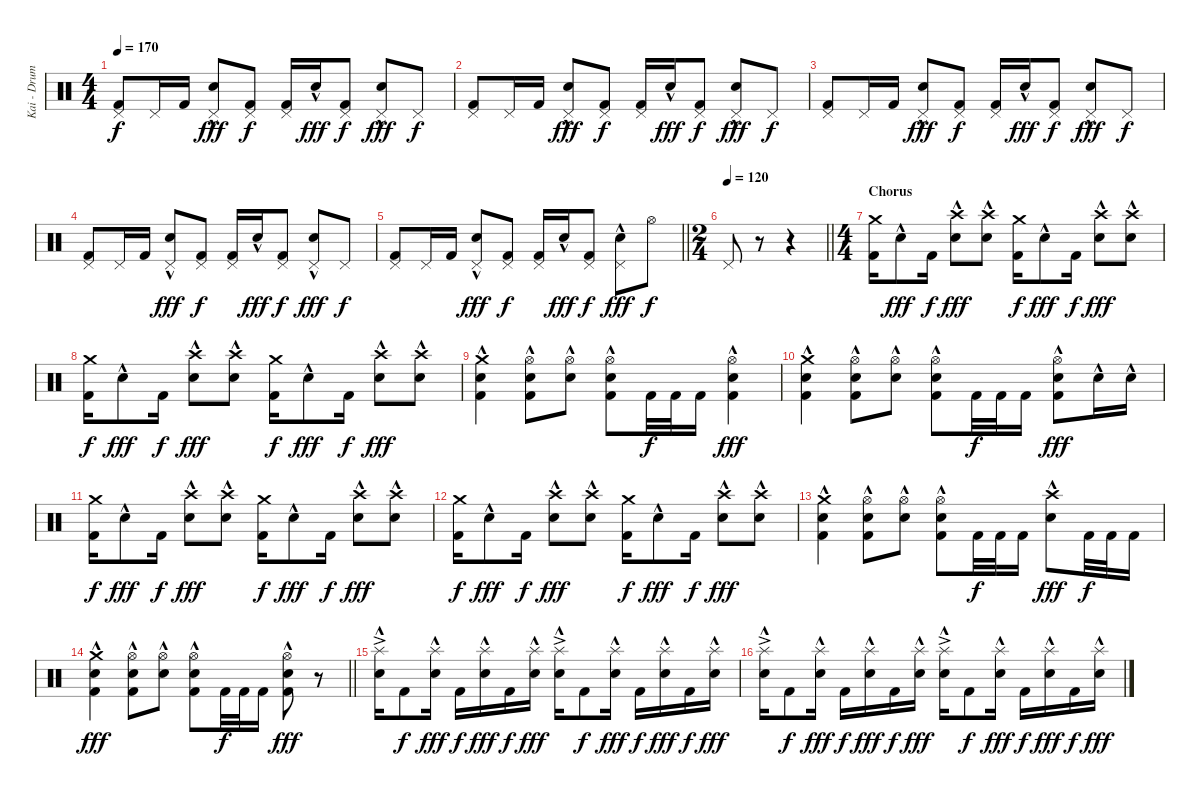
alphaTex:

\track ("Kai - Drums" "Kai - Drum") {instrument percussion}
\staff {score}
\articulation defaults
\ts (4 4)
\tempo 170
\clef neutral
\ks c
("Pedal Hi-Hat (hit)" "Kick (hit) 2").8{dy f} "Pedal Hi-Hat (hit)".16 "Kick (hit) 2".16 ("Pedal Hi-Hat (hit)" "Electric Snare (hit)"{hac}).8{dy fff} ("Pedal Hi-Hat (hit)" "Kick (hit) 2").8{dy f} ("Pedal Hi-Hat (hit)" "Kick (hit) 2").16 "Electric Snare (hit)"{hac}.16{dy fff} ("Pedal Hi-Hat (hit)" "Kick (hit) 2").8{dy f} ("Pedal Hi-Hat (hit)" "Electric Snare (hit)"{hac}).8{dy fff} "Pedal Hi-Hat (hit)".8{dy f} |
("Pedal Hi-Hat (hit)" "Kick (hit) 2").8 "Pedal Hi-Hat (hit)".16 "Kick (hit) 2".16 ("Pedal Hi-Hat (hit)" "Electric Snare (hit)"{hac}).8{dy fff} ("Pedal Hi-Hat (hit)" "Kick (hit) 2").8{dy f} ("Pedal Hi-Hat (hit)" "Kick (hit) 2").16 "Electric Snare (hit)"{hac}.16{dy fff} ("Pedal Hi-Hat (hit)" "Kick (hit) 2").8{dy f} ("Pedal Hi-Hat (hit)" "Electric Snare (hit)"{hac}).8{dy fff} "Pedal Hi-Hat (hit)".8{dy f} |
("Pedal Hi-Hat (hit)" "Kick (hit) 2").8 "Pedal Hi-Hat (hit)".16 "Kick (hit) 2".16 ("Pedal Hi-Hat (hit)" "Electric Snare (hit)"{hac}).8{dy fff} ("Pedal Hi-Hat (hit)" "Kick (hit) 2").8{dy f} ("Pedal Hi-Hat (hit)" "Kick (hit) 2").16 "Electric Snare (hit)"{hac}.16{dy fff} ("Pedal Hi-Hat (hit)" "Kick (hit) 2").8{dy f} ("Pedal Hi-Hat (hit)" "Electric Snare (hit)"{hac}).8{dy fff} "Pedal Hi-Hat (hit)".8{dy f} |
("Pedal Hi-Hat (hit)" "Kick (hit) 2").8 "Pedal Hi-Hat (hit)".16 "Kick (hit) 2".16 ("Pedal Hi-Hat (hit)" "Electric Snare (hit)"{hac}).8{dy fff} ("Pedal Hi-Hat (hit)" "Kick (hit) 2").8{dy f} ("Pedal Hi-Hat (hit)" "Kick (hit) 2").16 "Electric Snare (hit)"{hac}.16{dy fff} ("Pedal Hi-Hat (hit)" "Kick (hit) 2").8{dy f} ("Pedal Hi-Hat (hit)" "Electric Snare (hit)"{hac}).8{dy fff} "Pedal Hi-Hat (hit)".8{dy f} |
\barLineRight lightlight
("Pedal Hi-Hat (hit)" "Kick (hit) 2").8 "Pedal Hi-Hat (hit)".16 "Kick (hit) 2".16 ("Pedal Hi-Hat (hit)" "Electric Snare (hit)"{hac}).8{dy fff} ("Pedal Hi-Hat (hit)" "Kick (hit) 2").8{dy f} ("Pedal Hi-Hat (hit)" "Kick (hit) 2").16 "Electric Snare (hit)"{hac}.16{dy fff} ("Pedal Hi-Hat (hit)" "Kick (hit) 2").8{dy f} ("Pedal Hi-Hat (hit)" "Electric Snare (hit)"{hac}).8{dy fff} "Hi-Hat (open)".8{dy f} |
\ts (2 4)
\tempo 120
\barLineRight lightlight "Pedal Hi-Hat (hit)".8
r.8 r.4 |
\ts (4 4)
\section ("" "Chorus")
("Crash medium (hit)" "Kick (hit) 2").16 "Electric Snare (hit)"{hac}.8{dy fff} "Kick (hit) 2".16{dy f} ("Crash high (hit)" "Electric Snare (hit)"{hac}).8{dy fff} ("Crash high (hit)" "Electric Snare (hit)"{hac}).8 ("Crash medium (hit)" "Kick (hit) 2").16{dy f} "Electric Snare (hit)"{hac}.8{dy fff} "Kick (hit) 2".16{dy f} ("Crash high (hit)" "Electric Snare (hit)"{hac}).8{dy fff} ("Crash high (hit)" "Electric Snare (hit)"{hac}).8 |
("Crash medium (hit)" "Kick (hit) 2").16{dy f} "Electric Snare (hit)"{hac}.8{dy fff} "Kick (hit) 2".16{dy f} ("Crash high (hit)" "Electric Snare (hit)"{hac}).8{dy fff} ("Crash high (hit)" "Electric Snare (hit)"{hac}).8 ("Crash medium (hit)" "Kick (hit) 2").16{dy f} "Electric Snare (hit)"{hac}.8{dy fff} "Kick (hit) 2".16{dy f} ("Crash high (hit)" "Electric Snare (hit)"{hac}).8{dy fff} ("Crash high (hit)" "Electric Snare (hit)"{hac}).8 |
("Crash medium (hit)" "Electric Snare (hit)"{hac} "Kick (hit) 2").4 ("Hi-Hat (open)" "Electric Snare (hit)"{hac} "Kick (hit) 2").8 ("Hi-Hat (open)" "Electric Snare (hit)"{hac}).8 ("Hi-Hat (open)" "Electric Snare (hit)"{hac} "Kick (hit) 2").8 "Kick (hit) 2".32{dy f} "Kick (hit) 2".32 "Kick (hit) 2".16 ("Hi-Hat (open)" "Electric Snare (hit)"{hac} "Kick (hit) 2").4{dy fff} |
("Crash medium (hit)" "Electric Snare (hit)"{hac} "Kick (hit) 2").4 ("Hi-Hat (open)" "Electric Snare (hit)"{hac} "Kick (hit) 2").8 ("Hi-Hat (open)" "Electric Snare (hit)"{hac}).8 ("Hi-Hat (open)" "Electric Snare (hit)"{hac} "Kick (hit) 2").8 "Kick (hit) 2".32{dy f} "Kick (hit) 2".32 "Kick (hit) 2".16 ("Hi-Hat (open)" "Electric Snare (hit)"{hac} "Kick (hit) 2").8{dy fff} "Electric Snare (hit)"{hac}.16 "Electric Snare (hit)"{hac}.16 |
("Crash medium (hit)" "Kick (hit) 2").16{dy f} "Electric Snare (hit)"{hac}.8{dy fff} "Kick (hit) 2".16{dy f} ("Crash high (hit)" "Electric Snare (hit)"{hac}).8{dy fff} ("Crash high (hit)" "Electric Snare (hit)"{hac}).8 ("Crash medium (hit)" "Kick (hit) 2").16{dy f} "Electric Snare (hit)"{hac}.8{dy fff} "Kick (hit) 2".16{dy f} ("Crash high (hit)" "Electric Snare (hit)"{hac}).8{dy fff} ("Crash high (hit)" "Electric Snare (hit)"{hac}).8 |
("Crash medium (hit)" "Kick (hit) 2").16{dy f} "Electric Snare (hit)"{hac}.8{dy fff} "Kick (hit) 2".16{dy f} ("Crash high (hit)" "Electric Snare (hit)"{hac}).8{dy fff} ("Crash high (hit)" "Electric Snare (hit)"{hac}).8 ("Crash medium (hit)" "Kick (hit) 2").16{dy f} "Electric Snare (hit)"{hac}.8{dy fff} "Kick (hit) 2".16{dy f} ("Crash high (hit)" "Electric Snare (hit)"{hac}).8{dy fff} ("Crash high (hit)" "Electric Snare (hit)"{hac}).8 |
("Crash medium (hit)" "Electric Snare (hit)"{hac} "Kick (hit) 2").4 ("Hi-Hat (open)" "Electric Snare (hit)"{hac} "Kick (hit) 2").8 ("Hi-Hat (open)" "Electric Snare (hit)"{hac}).8 ("Hi-Hat (open)" "Electric Snare (hit)"{hac} "Kick (hit) 2").8 "Kick (hit) 2".32{dy f} "Kick (hit) 2".32 "Kick (hit) 2".16 ("Crash high (hit)" "Electric Snare (hit)"{hac}).8{dy fff} "Kick (hit) 2".32{dy f} "Kick (hit) 2".32 "Kick (hit) 2".16 |
\barLineRight lightlight
("Crash medium (hit)" "Electric Snare (hit)"{hac} "Kick (hit) 2").4{dy fff} ("Hi-Hat (open)" "Electric Snare (hit)"{hac} "Kick (hit) 2").8 ("Hi-Hat (open)" "Electric Snare (hit)"{hac}).8 ("Hi-Hat (open)" "Electric Snare (hit)"{hac} "Kick (hit) 2").8 "Kick (hit) 2".32{dy f} "Kick (hit) 2".32 "Kick (hit) 2".16 ("Hi-Hat (open)" "Electric Snare (hit)"{hac} "Kick (hit) 2").8{dy fff} r.8 |
("Splash (hit)"{ac} "Electric Snare (hit)"{hac}).16 "Kick (hit) 2".8{dy f} ("Splash (hit)" "Electric Snare (hit)"{hac}).16{dy fff} "Kick (hit) 2".16{dy f} ("Splash (hit)" "Electric Snare (hit)"{hac}).16{dy fff} "Kick (hit) 2".16{dy f} ("Splash (hit)" "Electric Snare (hit)"{hac}).16{dy fff} ("Splash (hit)"{ac} "Electric Snare (hit)"{hac}).16 "Kick (hit) 2".8{dy f} ("Splash (hit)" "Electric Snare (hit)"{hac}).16{dy fff} "Kick (hit) 2".16{dy f} ("Splash (hit)" "Electric Snare (hit)"{hac}).16{dy fff} "Kick (hit) 2".16{dy f} ("Splash (hit)" "Electric Snare (hit)"{hac}).16{dy fff} |
("Splash (hit)"{ac} "Electric Snare (hit)"{hac}).16 "Kick (hit) 2".8{dy f} ("Splash (hit)" "Electric Snare (hit)"{hac}).16{dy fff} "Kick (hit) 2".16{dy f} ("Splash (hit)" "Electric Snare (hit)"{hac}).16{dy fff} "Kick (hit) 2".16{dy f} ("Splash (hit)" "Electric Snare (hit)"{hac}).16{dy fff} ("Splash (hit)"{ac} "Electric Snare (hit)"{hac}).16 "Kick (hit) 2".8{dy f} ("Splash (hit)" "Electric Snare (hit)"{hac}).16{dy fff} "Kick (hit) 2".16{dy f} ("Splash (hit)" "Electric Snare (hit)"{hac}).16{dy fff} "Kick (hit) 2".16{dy f} ("Splash (hit)" "Electric Snare (hit)"{hac}).16{dy fff}
